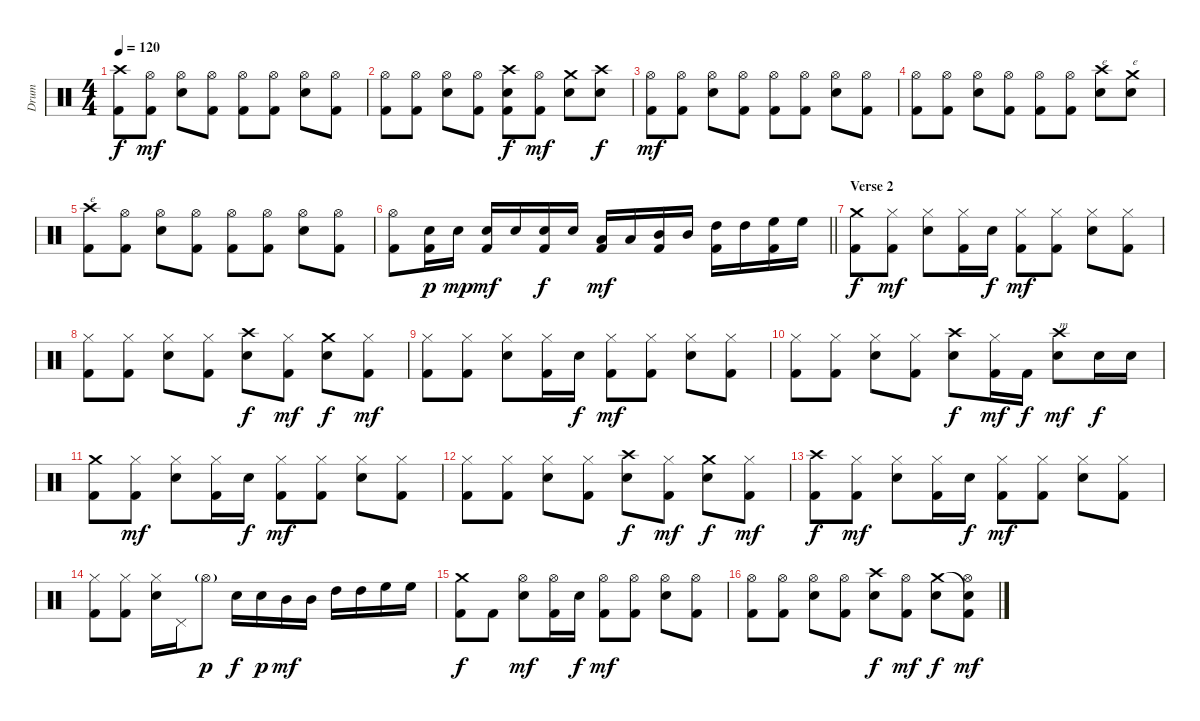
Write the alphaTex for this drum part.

\track ("Drum" "Drum") {instrument percussion}
\staff {score}
\articulation defaults
\ts (4 4)
\tempo 120
\clef neutral
\ks c
("Crash high (hit)" "Kick (hit) 2").8{dy f} ("Hi-Hat (open)" "Kick (hit) 2").8{dy mf} ("Hi-Hat (open)" "Snare (hit) 2").8 ("Hi-Hat (open)" "Kick (hit) 2").8 ("Hi-Hat (open)" "Kick (hit) 2").8 ("Hi-Hat (open)" "Kick (hit) 2").8 ("Hi-Hat (open)" "Snare (hit) 2").8 ("Hi-Hat (open)" "Kick (hit) 2").8 |
("Hi-Hat (open)" "Kick (hit) 2").8 ("Hi-Hat (open)" "Kick (hit) 2").8 ("Hi-Hat (open)" "Snare (hit) 2").8 ("Hi-Hat (open)" "Kick (hit) 2").8 ("Crash high (hit)" "Snare (hit) 2" "Kick (hit) 2").8{dy f} ("Hi-Hat (open)" "Kick (hit) 2").8{dy mf} ("Crash medium (hit)" "Snare (hit) 2").8 ("Crash high (hit)" "Snare (hit) 2").8{dy f} |
("Hi-Hat (open)" "Kick (hit) 2").8{dy mf} ("Hi-Hat (open)" "Kick (hit) 2").8 ("Hi-Hat (open)" "Snare (hit) 2").8 ("Hi-Hat (open)" "Kick (hit) 2").8 ("Hi-Hat (open)" "Kick (hit) 2").8 ("Hi-Hat (open)" "Kick (hit) 2").8 ("Hi-Hat (open)" "Snare (hit) 2").8 ("Hi-Hat (open)" "Kick (hit) 2").8 |
("Hi-Hat (open)" "Kick (hit) 2").8 ("Hi-Hat (open)" "Kick (hit) 2").8 ("Hi-Hat (open)" "Snare (hit) 2").8 ("Hi-Hat (open)" "Kick (hit) 2").8 ("Hi-Hat (open)" "Kick (hit) 2").8 ("Hi-Hat (open)" "Kick (hit) 2").8 ("Crash high (hit)" "Snare (hit) 2").8{txt "e"} ("Crash medium (hit)" "Snare (hit) 2").8{txt "e"} |
("Crash high (hit)" "Kick (hit) 2").8{txt "e"} ("Hi-Hat (open)" "Kick (hit) 2").8 ("Hi-Hat (open)" "Snare (hit) 2").8 ("Hi-Hat (open)" "Kick (hit) 2").8 ("Hi-Hat (open)" "Kick (hit) 2").8 ("Hi-Hat (open)" "Kick (hit) 2").8 ("Hi-Hat (open)" "Snare (hit) 2").8 ("Hi-Hat (open)" "Kick (hit) 2").8 |
\barLineRight lightlight
("Hi-Hat (open)" "Kick (hit) 2").8 ("Snare (hit) 2" "Kick (hit) 2").16{dy p} "Snare (hit) 2".16{dy mp} ("Snare (hit) 2" "Kick (hit) 2").16{dy mf} "Snare (hit) 2".16 ("Snare (hit) 2" "Kick (hit) 2").16{dy f} "Snare (hit) 2".16 ("Low Tom (hit)" "Kick (hit) 2").16{dy mf} "Low Tom (hit)".16 ("Mid Tom (hit)" "Kick (hit) 2").16 "Mid Tom (hit)".16 ("High Tom (hit)" "Kick (hit) 2").16 "High Tom (hit)".16 ("High Floor Tom (hit)" "Kick (hit) 2").16 "High Floor Tom (hit)".16 |
\section ("" "Verse 2")
("Crash medium (hit)" "Kick (hit) 2").8{dy f} ("Hi-Hat (closed)" "Kick (hit) 2").8{dy mf} ("Hi-Hat (closed)" "Snare (hit) 2").8 ("Hi-Hat (closed)" "Kick (hit) 2").16 "Snare (hit) 2".16{dy f} ("Hi-Hat (closed)" "Kick (hit) 2").8{dy mf} ("Hi-Hat (closed)" "Kick (hit) 2").8 ("Hi-Hat (closed)" "Snare (hit) 2").8 ("Hi-Hat (closed)" "Kick (hit) 2").8 |
("Hi-Hat (closed)" "Kick (hit) 2").8 ("Hi-Hat (closed)" "Kick (hit) 2").8 ("Hi-Hat (closed)" "Snare (hit) 2").8 ("Hi-Hat (closed)" "Kick (hit) 2").8 ("Crash high (hit)" "Snare (hit) 2").8{dy f} ("Hi-Hat (closed)" "Kick (hit) 2").8{dy mf} ("Crash medium (hit)" "Snare (hit) 2").8{dy f} ("Hi-Hat (closed)" "Kick (hit) 2").8{dy mf} |
("Hi-Hat (closed)" "Kick (hit) 2").8 ("Hi-Hat (closed)" "Kick (hit) 2").8 ("Hi-Hat (closed)" "Snare (hit) 2").8 ("Hi-Hat (closed)" "Kick (hit) 2").16 "Snare (hit) 2".16{dy f} ("Hi-Hat (closed)" "Kick (hit) 2").8{dy mf} ("Hi-Hat (closed)" "Kick (hit) 2").8 ("Hi-Hat (closed)" "Snare (hit) 2").8 ("Hi-Hat (closed)" "Kick (hit) 2").8 |
("Hi-Hat (closed)" "Kick (hit) 2").8 ("Hi-Hat (closed)" "Kick (hit) 2").8 ("Hi-Hat (closed)" "Snare (hit) 2").8 ("Hi-Hat (closed)" "Kick (hit) 2").8 ("Crash high (hit)" "Snare (hit) 2").8{dy f} ("Hi-Hat (closed)" "Kick (hit) 2").16{dy mf} "Kick (hit) 2".16{dy f} ("Crash high (hit)" "Snare (hit) 2").8{txt "m" dy mf} "Snare (hit) 2".16{dy f} "Snare (hit) 2".16 |
("Crash medium (hit)" "Kick (hit) 2").8 ("Hi-Hat (closed)" "Kick (hit) 2").8{dy mf} ("Hi-Hat (closed)" "Snare (hit) 2").8 ("Hi-Hat (closed)" "Kick (hit) 2").16 "Snare (hit) 2".16{dy f} ("Hi-Hat (closed)" "Kick (hit) 2").8{dy mf} ("Hi-Hat (closed)" "Kick (hit) 2").8 ("Hi-Hat (closed)" "Snare (hit) 2").8 ("Hi-Hat (closed)" "Kick (hit) 2").8 |
("Hi-Hat (closed)" "Kick (hit) 2").8 ("Hi-Hat (closed)" "Kick (hit) 2").8 ("Hi-Hat (closed)" "Snare (hit) 2").8 ("Hi-Hat (closed)" "Kick (hit) 2").8 ("Crash high (hit)" "Snare (hit) 2").8{dy f} ("Hi-Hat (closed)" "Kick (hit) 2").8{dy mf} ("Crash medium (hit)" "Snare (hit) 2").8{dy f} ("Hi-Hat (closed)" "Kick (hit) 2").8{dy mf} |
("Crash high (hit)" "Kick (hit) 2").8{dy f} ("Hi-Hat (closed)" "Kick (hit) 2").8{dy mf} ("Hi-Hat (closed)" "Snare (hit) 2").8 ("Hi-Hat (closed)" "Kick (hit) 2").16 "Snare (hit) 2".16{dy f} ("Hi-Hat (closed)" "Kick (hit) 2").8{dy mf} ("Hi-Hat (closed)" "Kick (hit) 2").8 ("Hi-Hat (closed)" "Snare (hit) 2").8 ("Hi-Hat (closed)" "Kick (hit) 2").8 |
("Hi-Hat (closed)" "Kick (hit) 2").8 ("Hi-Hat (closed)" "Kick (hit) 2").8 ("Hi-Hat (closed)" "Snare (hit) 2").16 "Pedal Hi-Hat (hit)".16 "Hi-Hat (open)"{g}.8{dy p} "Snare (hit) 2".16{dy f} "Snare (hit) 2".16{dy p} "Mid Tom (hit)".16{dy mf} "Mid Tom (hit)".16 "High Tom (hit)".16 "High Tom (hit)".16 "High Floor Tom (hit)".16 "High Floor Tom (hit)".16 |
("Crash medium (hit)" "Kick (hit) 2").8{dy f} "Kick (hit) 2".8 ("Hi-Hat (open)" "Snare (hit) 2").8{dy mf} ("Hi-Hat (open)" "Kick (hit) 2").16 "Snare (hit) 2".16{dy f} ("Hi-Hat (open)" "Kick (hit) 2").8{dy mf} ("Hi-Hat (open)" "Kick (hit) 2").8 ("Hi-Hat (open)" "Snare (hit) 2").8 ("Hi-Hat (open)" "Kick (hit) 2").8 |
("Hi-Hat (open)" "Kick (hit) 2").8 ("Hi-Hat (open)" "Kick (hit) 2").8 ("Hi-Hat (open)" "Snare (hit) 2").8 ("Hi-Hat (open)" "Kick (hit) 2").8 ("Crash high (hit)" "Snare (hit) 2").8{dy f} ("Hi-Hat (open)" "Kick (hit) 2").8{dy mf} ("Crash medium (hit)" "Snare (hit) 2").8{dy f} ("Snare (hit)"{t} "Hi-Hat (open)" "Kick (hit) 2").8{dy mf}
